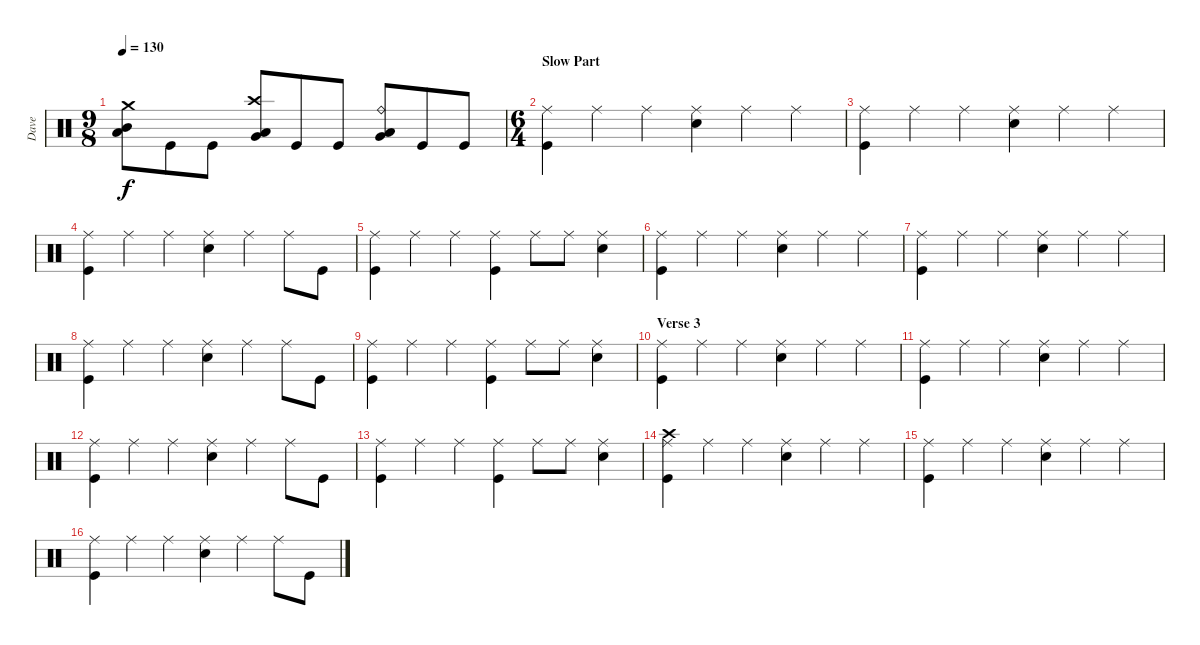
\track ("Dave" "Dave") {instrument percussion}
\staff {score}
\articulation defaults
\ts (9 8)
\tempo 130
\clef neutral
\ks c
("Crash medium (hit)" "Mid Tom (hit)" "Low Tom (hit)").8{dy f} "Kick (hit)".8 "Kick (hit)".8 ("Crash high (hit)" "Low Tom (hit)" "Very Low Tom (hit)").8 "Kick (hit)".8 "Kick (hit)".8 ("Ride (bell)" "Very Low Tom (hit)" "Low Floor Tom (hit)").8 "Kick (hit)".8 "Kick (hit)".8 |
\ts (6 4)
\section ("" "Slow Part")
("Ride (middle)" "Kick (hit)").4 "Ride (middle)".4 "Ride (middle)".4 ("Ride (middle)" "Electric Snare (hit)").4 "Ride (middle)".4 "Ride (middle)".4 |
("Ride (middle)" "Kick (hit)").4 "Ride (middle)".4 "Ride (middle)".4 ("Ride (middle)" "Electric Snare (hit)").4 "Ride (middle)".4 "Ride (middle)".4 |
("Ride (middle)" "Kick (hit)").4 "Ride (middle)".4 "Ride (middle)".4 ("Ride (middle)" "Electric Snare (hit)").4 "Ride (middle)".4 "Ride (middle)".8 "Kick (hit)".8 |
("Ride (middle)" "Kick (hit)").4 "Ride (middle)".4 "Ride (middle)".4 ("Ride (middle)" "Kick (hit)").4 "Ride (middle)".8 "Ride (middle)".8 ("Ride (middle)" "Electric Snare (hit)").4 |
("Ride (middle)" "Kick (hit)").4 "Ride (middle)".4 "Ride (middle)".4 ("Ride (middle)" "Electric Snare (hit)").4 "Ride (middle)".4 "Ride (middle)".4 |
("Ride (middle)" "Kick (hit)").4 "Ride (middle)".4 "Ride (middle)".4 ("Ride (middle)" "Electric Snare (hit)").4 "Ride (middle)".4 "Ride (middle)".4 |
("Ride (middle)" "Kick (hit)").4 "Ride (middle)".4 "Ride (middle)".4 ("Ride (middle)" "Electric Snare (hit)").4 "Ride (middle)".4 "Ride (middle)".8 "Kick (hit)".8 |
("Ride (middle)" "Kick (hit)").4 "Ride (middle)".4 "Ride (middle)".4 ("Ride (middle)" "Kick (hit)").4 "Ride (middle)".8 "Ride (middle)".8 ("Ride (middle)" "Electric Snare (hit)").4 |
\section ("" "Verse 3")
("Ride (middle)" "Kick (hit)").4 "Ride (middle)".4 "Ride (middle)".4 ("Ride (middle)" "Electric Snare (hit)").4 "Ride (middle)".4 "Ride (middle)".4 |
("Ride (middle)" "Kick (hit)").4 "Ride (middle)".4 "Ride (middle)".4 ("Ride (middle)" "Electric Snare (hit)").4 "Ride (middle)".4 "Ride (middle)".4 |
("Ride (middle)" "Kick (hit)").4 "Ride (middle)".4 "Ride (middle)".4 ("Ride (middle)" "Electric Snare (hit)").4 "Ride (middle)".4 "Ride (middle)".8 "Kick (hit)".8 |
("Ride (middle)" "Kick (hit)").4 "Ride (middle)".4 "Ride (middle)".4 ("Ride (middle)" "Kick (hit)").4 "Ride (middle)".8 "Ride (middle)".8 ("Ride (middle)" "Electric Snare (hit)").4 |
("Crash high (hit)" "Ride (middle)" "Kick (hit)").4 "Ride (middle)".4 "Ride (middle)".4 ("Ride (middle)" "Electric Snare (hit)").4 "Ride (middle)".4 "Ride (middle)".4 |
("Ride (middle)" "Kick (hit)").4 "Ride (middle)".4 "Ride (middle)".4 ("Ride (middle)" "Electric Snare (hit)").4 "Ride (middle)".4 "Ride (middle)".4 |
("Ride (middle)" "Kick (hit)").4 "Ride (middle)".4 "Ride (middle)".4 ("Ride (middle)" "Electric Snare (hit)").4 "Ride (middle)".4 "Ride (middle)".8 "Kick (hit)".8
